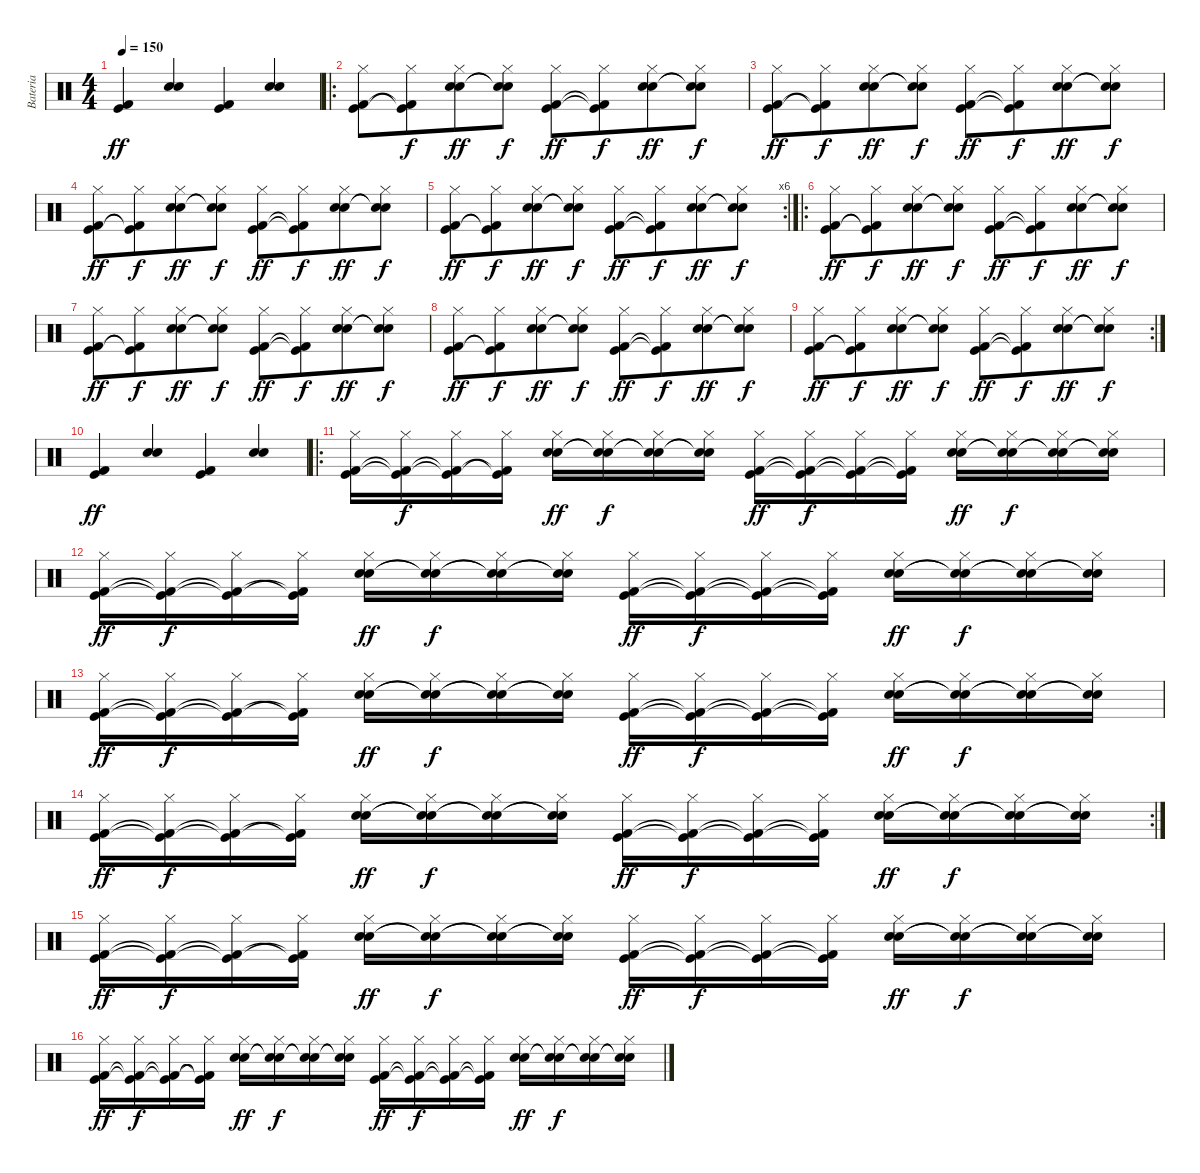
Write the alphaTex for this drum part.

\track ("Bateria" "Bateria") {instrument percussion}
\staff {score}
\articulation defaults
\ts (4 4)
\tempo 150
\clef neutral
\ks c
("Kick (hit) 2" "Kick (hit)").4{dy ff beam merge} ("Snare (hit) 2" "Electric Snare (hit)").4 ("Kick (hit) 2" "Kick (hit)").4{beam merge} ("Snare (hit) 2" "Electric Snare (hit)").4 |
\ro
("Hi-Hat (closed)" "Kick (hit) 2" "Kick (hit)").8 ("Hi-Hat (closed)" "Kick (hit)"{t} "Kick (hit) 2"{t}).8{dy f beam merge} ("Hi-Hat (closed)" "Snare (hit) 2" "Electric Snare (hit)").8{dy ff} ("Hi-Hat (closed)" "Snare (hit) 2"{t} "Electric Snare (hit)"{t}).8{dy f} ("Hi-Hat (closed)" "Kick (hit) 2" "Kick (hit)").8{dy ff} ("Hi-Hat (closed)" "Kick (hit) 2"{t} "Kick (hit)"{t}).8{dy f beam merge} ("Hi-Hat (closed)" "Snare (hit) 2" "Electric Snare (hit)").8{dy ff} ("Hi-Hat (closed)" "Snare (hit) 2"{t} "Electric Snare (hit)"{t}).8{dy f} |
("Hi-Hat (closed)" "Kick (hit) 2" "Kick (hit)").8{dy ff} ("Hi-Hat (closed)" "Kick (hit)"{t} "Kick (hit) 2"{t}).8{dy f beam merge} ("Hi-Hat (closed)" "Snare (hit) 2" "Electric Snare (hit)").8{dy ff} ("Hi-Hat (closed)" "Snare (hit) 2"{t} "Electric Snare (hit)"{t}).8{dy f} ("Hi-Hat (closed)" "Kick (hit) 2" "Kick (hit)").8{dy ff} ("Hi-Hat (closed)" "Kick (hit) 2"{t} "Kick (hit)"{t}).8{dy f beam merge} ("Hi-Hat (closed)" "Snare (hit) 2" "Electric Snare (hit)").8{dy ff} ("Hi-Hat (closed)" "Snare (hit) 2"{t} "Electric Snare (hit)"{t}).8{dy f} |
("Hi-Hat (closed)" "Kick (hit) 2" "Kick (hit)").8{dy ff} ("Hi-Hat (closed)" "Kick (hit)"{t} "Kick (hit) 2"{t}).8{dy f beam merge} ("Hi-Hat (closed)" "Snare (hit) 2" "Electric Snare (hit)").8{dy ff} ("Hi-Hat (closed)" "Snare (hit) 2"{t} "Electric Snare (hit)"{t}).8{dy f} ("Hi-Hat (closed)" "Kick (hit) 2" "Kick (hit)").8{dy ff} ("Hi-Hat (closed)" "Kick (hit) 2"{t} "Kick (hit)"{t}).8{dy f beam merge} ("Hi-Hat (closed)" "Snare (hit) 2" "Electric Snare (hit)").8{dy ff} ("Hi-Hat (closed)" "Snare (hit) 2"{t} "Electric Snare (hit)"{t}).8{dy f} |
\rc 6
("Hi-Hat (closed)" "Kick (hit) 2" "Kick (hit)").8{dy ff} ("Hi-Hat (closed)" "Kick (hit)"{t} "Kick (hit) 2"{t}).8{dy f beam merge} ("Hi-Hat (closed)" "Snare (hit) 2" "Electric Snare (hit)").8{dy ff} ("Hi-Hat (closed)" "Snare (hit) 2"{t} "Electric Snare (hit)"{t}).8{dy f} ("Hi-Hat (closed)" "Kick (hit) 2" "Kick (hit)").8{dy ff} ("Hi-Hat (closed)" "Kick (hit) 2"{t} "Kick (hit)"{t}).8{dy f beam merge} ("Hi-Hat (closed)" "Snare (hit) 2" "Electric Snare (hit)").8{dy ff} ("Hi-Hat (closed)" "Snare (hit) 2"{t} "Electric Snare (hit)"{t}).8{dy f} |
\ro
("Hi-Hat (closed)" "Kick (hit) 2" "Kick (hit)").8{dy ff} ("Hi-Hat (closed)" "Kick (hit)"{t} "Kick (hit) 2"{t}).8{dy f beam merge} ("Hi-Hat (closed)" "Snare (hit) 2" "Electric Snare (hit)").8{dy ff} ("Hi-Hat (closed)" "Snare (hit) 2"{t} "Electric Snare (hit)"{t}).8{dy f} ("Hi-Hat (closed)" "Kick (hit) 2" "Kick (hit)").8{dy ff} ("Hi-Hat (closed)" "Kick (hit) 2"{t} "Kick (hit)"{t}).8{dy f beam merge} ("Hi-Hat (closed)" "Snare (hit) 2" "Electric Snare (hit)").8{dy ff} ("Hi-Hat (closed)" "Snare (hit) 2"{t} "Electric Snare (hit)"{t}).8{dy f} |
("Hi-Hat (closed)" "Kick (hit) 2" "Kick (hit)").8{dy ff} ("Hi-Hat (closed)" "Kick (hit)"{t} "Kick (hit) 2"{t}).8{dy f beam merge} ("Hi-Hat (closed)" "Snare (hit) 2" "Electric Snare (hit)").8{dy ff} ("Hi-Hat (closed)" "Snare (hit) 2"{t} "Electric Snare (hit)"{t}).8{dy f} ("Hi-Hat (closed)" "Kick (hit) 2" "Kick (hit)").8{dy ff} ("Hi-Hat (closed)" "Kick (hit) 2"{t} "Kick (hit)"{t}).8{dy f beam merge} ("Hi-Hat (closed)" "Snare (hit) 2" "Electric Snare (hit)").8{dy ff} ("Hi-Hat (closed)" "Snare (hit) 2"{t} "Electric Snare (hit)"{t}).8{dy f} |
("Hi-Hat (closed)" "Kick (hit) 2" "Kick (hit)").8{dy ff} ("Hi-Hat (closed)" "Kick (hit)"{t} "Kick (hit) 2"{t}).8{dy f beam merge} ("Hi-Hat (closed)" "Snare (hit) 2" "Electric Snare (hit)").8{dy ff} ("Hi-Hat (closed)" "Snare (hit) 2"{t} "Electric Snare (hit)"{t}).8{dy f} ("Hi-Hat (closed)" "Kick (hit) 2" "Kick (hit)").8{dy ff} ("Hi-Hat (closed)" "Kick (hit) 2"{t} "Kick (hit)"{t}).8{dy f beam merge} ("Hi-Hat (closed)" "Snare (hit) 2" "Electric Snare (hit)").8{dy ff} ("Hi-Hat (closed)" "Snare (hit) 2"{t} "Electric Snare (hit)"{t}).8{dy f} |
\rc 2
("Hi-Hat (closed)" "Kick (hit) 2" "Kick (hit)").8{dy ff} ("Hi-Hat (closed)" "Kick (hit)"{t} "Kick (hit) 2"{t}).8{dy f beam merge} ("Hi-Hat (closed)" "Snare (hit) 2" "Electric Snare (hit)").8{dy ff} ("Hi-Hat (closed)" "Snare (hit) 2"{t} "Electric Snare (hit)"{t}).8{dy f} ("Hi-Hat (closed)" "Kick (hit) 2" "Kick (hit)").8{dy ff} ("Hi-Hat (closed)" "Kick (hit) 2"{t} "Kick (hit)"{t}).8{dy f beam merge} ("Hi-Hat (closed)" "Snare (hit) 2" "Electric Snare (hit)").8{dy ff} ("Hi-Hat (closed)" "Snare (hit) 2"{t} "Electric Snare (hit)"{t}).8{dy f} |
("Kick (hit) 2" "Kick (hit)").4{dy ff beam merge} ("Snare (hit) 2" "Electric Snare (hit)").4 ("Kick (hit) 2" "Kick (hit)").4{beam merge} ("Snare (hit) 2" "Electric Snare (hit)").4 |
\ro
("Hi-Hat (closed)" "Kick (hit) 2" "Kick (hit)").16 ("Hi-Hat (closed)" "Kick (hit) 2"{t} "Kick (hit)"{t}).16{dy f} ("Hi-Hat (closed)" "Kick (hit) 2"{t} "Kick (hit)"{t}).16 ("Hi-Hat (closed)" "Kick (hit)"{t} "Kick (hit) 2"{t}).16 ("Hi-Hat (closed)" "Snare (hit) 2" "Electric Snare (hit)").16{dy ff} ("Hi-Hat (closed)" "Snare (hit) 2"{t} "Electric Snare (hit)"{t}).16{dy f} ("Hi-Hat (closed)" "Snare (hit) 2"{t} "Electric Snare (hit)"{t}).16 ("Hi-Hat (closed)" "Snare (hit) 2"{t} "Electric Snare (hit)"{t}).16 ("Hi-Hat (closed)" "Kick (hit) 2" "Kick (hit)").16{dy ff} ("Hi-Hat (closed)" "Kick (hit) 2"{t} "Kick (hit)"{t}).16{dy f} ("Hi-Hat (closed)" "Kick (hit) 2"{t} "Kick (hit)"{t}).16 ("Hi-Hat (closed)" "Kick (hit) 2"{t} "Kick (hit)"{t}).16 ("Hi-Hat (closed)" "Snare (hit) 2" "Electric Snare (hit)").16{dy ff} ("Hi-Hat (closed)" "Snare (hit) 2"{t} "Electric Snare (hit)"{t}).16{dy f} ("Hi-Hat (closed)" "Snare (hit) 2"{t} "Electric Snare (hit)"{t}).16 ("Hi-Hat (closed)" "Snare (hit) 2"{t} "Electric Snare (hit)"{t}).16 |
("Hi-Hat (closed)" "Kick (hit) 2" "Kick (hit)").16{dy ff} ("Hi-Hat (closed)" "Kick (hit) 2"{t} "Kick (hit)"{t}).16{dy f} ("Hi-Hat (closed)" "Kick (hit) 2"{t} "Kick (hit)"{t}).16 ("Hi-Hat (closed)" "Kick (hit)"{t} "Kick (hit) 2"{t}).16 ("Hi-Hat (closed)" "Snare (hit) 2" "Electric Snare (hit)").16{dy ff} ("Hi-Hat (closed)" "Snare (hit) 2"{t} "Electric Snare (hit)"{t}).16{dy f} ("Hi-Hat (closed)" "Snare (hit) 2"{t} "Electric Snare (hit)"{t}).16 ("Hi-Hat (closed)" "Snare (hit) 2"{t} "Electric Snare (hit)"{t}).16 ("Hi-Hat (closed)" "Kick (hit) 2" "Kick (hit)").16{dy ff} ("Hi-Hat (closed)" "Kick (hit) 2"{t} "Kick (hit)"{t}).16{dy f} ("Hi-Hat (closed)" "Kick (hit) 2"{t} "Kick (hit)"{t}).16 ("Hi-Hat (closed)" "Kick (hit) 2"{t} "Kick (hit)"{t}).16 ("Hi-Hat (closed)" "Snare (hit) 2" "Electric Snare (hit)").16{dy ff} ("Hi-Hat (closed)" "Snare (hit) 2"{t} "Electric Snare (hit)"{t}).16{dy f} ("Hi-Hat (closed)" "Snare (hit) 2"{t} "Electric Snare (hit)"{t}).16 ("Hi-Hat (closed)" "Snare (hit) 2"{t} "Electric Snare (hit)"{t}).16 |
("Hi-Hat (closed)" "Kick (hit) 2" "Kick (hit)").16{dy ff} ("Hi-Hat (closed)" "Kick (hit) 2"{t} "Kick (hit)"{t}).16{dy f} ("Hi-Hat (closed)" "Kick (hit) 2"{t} "Kick (hit)"{t}).16 ("Hi-Hat (closed)" "Kick (hit)"{t} "Kick (hit) 2"{t}).16 ("Hi-Hat (closed)" "Snare (hit) 2" "Electric Snare (hit)").16{dy ff} ("Hi-Hat (closed)" "Snare (hit) 2"{t} "Electric Snare (hit)"{t}).16{dy f} ("Hi-Hat (closed)" "Snare (hit) 2"{t} "Electric Snare (hit)"{t}).16 ("Hi-Hat (closed)" "Snare (hit) 2"{t} "Electric Snare (hit)"{t}).16 ("Hi-Hat (closed)" "Kick (hit) 2" "Kick (hit)").16{dy ff} ("Hi-Hat (closed)" "Kick (hit) 2"{t} "Kick (hit)"{t}).16{dy f} ("Hi-Hat (closed)" "Kick (hit) 2"{t} "Kick (hit)"{t}).16 ("Hi-Hat (closed)" "Kick (hit) 2"{t} "Kick (hit)"{t}).16 ("Hi-Hat (closed)" "Snare (hit) 2" "Electric Snare (hit)").16{dy ff} ("Hi-Hat (closed)" "Snare (hit) 2"{t} "Electric Snare (hit)"{t}).16{dy f} ("Hi-Hat (closed)" "Snare (hit) 2"{t} "Electric Snare (hit)"{t}).16 ("Hi-Hat (closed)" "Snare (hit) 2"{t} "Electric Snare (hit)"{t}).16 |
\rc 2
("Hi-Hat (closed)" "Kick (hit) 2" "Kick (hit)").16{dy ff} ("Hi-Hat (closed)" "Kick (hit) 2"{t} "Kick (hit)"{t}).16{dy f} ("Hi-Hat (closed)" "Kick (hit) 2"{t} "Kick (hit)"{t}).16 ("Hi-Hat (closed)" "Kick (hit)"{t} "Kick (hit) 2"{t}).16 ("Hi-Hat (closed)" "Snare (hit) 2" "Electric Snare (hit)").16{dy ff} ("Hi-Hat (closed)" "Snare (hit) 2"{t} "Electric Snare (hit)"{t}).16{dy f} ("Hi-Hat (closed)" "Snare (hit) 2"{t} "Electric Snare (hit)"{t}).16 ("Hi-Hat (closed)" "Snare (hit) 2"{t} "Electric Snare (hit)"{t}).16 ("Hi-Hat (closed)" "Kick (hit) 2" "Kick (hit)").16{dy ff} ("Hi-Hat (closed)" "Kick (hit) 2"{t} "Kick (hit)"{t}).16{dy f} ("Hi-Hat (closed)" "Kick (hit) 2"{t} "Kick (hit)"{t}).16 ("Hi-Hat (closed)" "Kick (hit) 2"{t} "Kick (hit)"{t}).16 ("Hi-Hat (closed)" "Snare (hit) 2" "Electric Snare (hit)").16{dy ff} ("Hi-Hat (closed)" "Snare (hit) 2"{t} "Electric Snare (hit)"{t}).16{dy f} ("Hi-Hat (closed)" "Snare (hit) 2"{t} "Electric Snare (hit)"{t}).16 ("Hi-Hat (closed)" "Snare (hit) 2"{t} "Electric Snare (hit)"{t}).16 |
("Hi-Hat (closed)" "Kick (hit) 2" "Kick (hit)").16{dy ff} ("Hi-Hat (closed)" "Kick (hit) 2"{t} "Kick (hit)"{t}).16{dy f} ("Hi-Hat (closed)" "Kick (hit) 2"{t} "Kick (hit)"{t}).16 ("Hi-Hat (closed)" "Kick (hit)"{t} "Kick (hit) 2"{t}).16 ("Hi-Hat (closed)" "Snare (hit) 2" "Electric Snare (hit)").16{dy ff} ("Hi-Hat (closed)" "Snare (hit) 2"{t} "Electric Snare (hit)"{t}).16{dy f} ("Hi-Hat (closed)" "Snare (hit) 2"{t} "Electric Snare (hit)"{t}).16 ("Hi-Hat (closed)" "Snare (hit) 2"{t} "Electric Snare (hit)"{t}).16 ("Hi-Hat (closed)" "Kick (hit) 2" "Kick (hit)").16{dy ff} ("Hi-Hat (closed)" "Kick (hit) 2"{t} "Kick (hit)"{t}).16{dy f} ("Hi-Hat (closed)" "Kick (hit) 2"{t} "Kick (hit)"{t}).16 ("Hi-Hat (closed)" "Kick (hit) 2"{t} "Kick (hit)"{t}).16 ("Hi-Hat (closed)" "Snare (hit) 2" "Electric Snare (hit)").16{dy ff} ("Hi-Hat (closed)" "Snare (hit) 2"{t} "Electric Snare (hit)"{t}).16{dy f} ("Hi-Hat (closed)" "Snare (hit) 2"{t} "Electric Snare (hit)"{t}).16 ("Hi-Hat (closed)" "Snare (hit) 2"{t} "Electric Snare (hit)"{t}).16 |
("Hi-Hat (closed)" "Kick (hit) 2" "Kick (hit)").16{dy ff} ("Hi-Hat (closed)" "Kick (hit) 2"{t} "Kick (hit)"{t}).16{dy f} ("Hi-Hat (closed)" "Kick (hit) 2"{t} "Kick (hit)"{t}).16 ("Hi-Hat (closed)" "Kick (hit)"{t} "Kick (hit) 2"{t}).16 ("Hi-Hat (closed)" "Snare (hit) 2" "Electric Snare (hit)").16{dy ff} ("Hi-Hat (closed)" "Snare (hit) 2"{t} "Electric Snare (hit)"{t}).16{dy f} ("Hi-Hat (closed)" "Snare (hit) 2"{t} "Electric Snare (hit)"{t}).16 ("Hi-Hat (closed)" "Snare (hit) 2"{t} "Electric Snare (hit)"{t}).16 ("Hi-Hat (closed)" "Kick (hit) 2" "Kick (hit)").16{dy ff} ("Hi-Hat (closed)" "Kick (hit) 2"{t} "Kick (hit)"{t}).16{dy f} ("Hi-Hat (closed)" "Kick (hit) 2"{t} "Kick (hit)"{t}).16 ("Hi-Hat (closed)" "Kick (hit) 2"{t} "Kick (hit)"{t}).16 ("Hi-Hat (closed)" "Snare (hit) 2" "Electric Snare (hit)").16{dy ff} ("Hi-Hat (closed)" "Snare (hit) 2"{t} "Electric Snare (hit)"{t}).16{dy f} ("Hi-Hat (closed)" "Snare (hit) 2"{t} "Electric Snare (hit)"{t}).16 ("Hi-Hat (closed)" "Snare (hit) 2"{t} "Electric Snare (hit)"{t}).16
